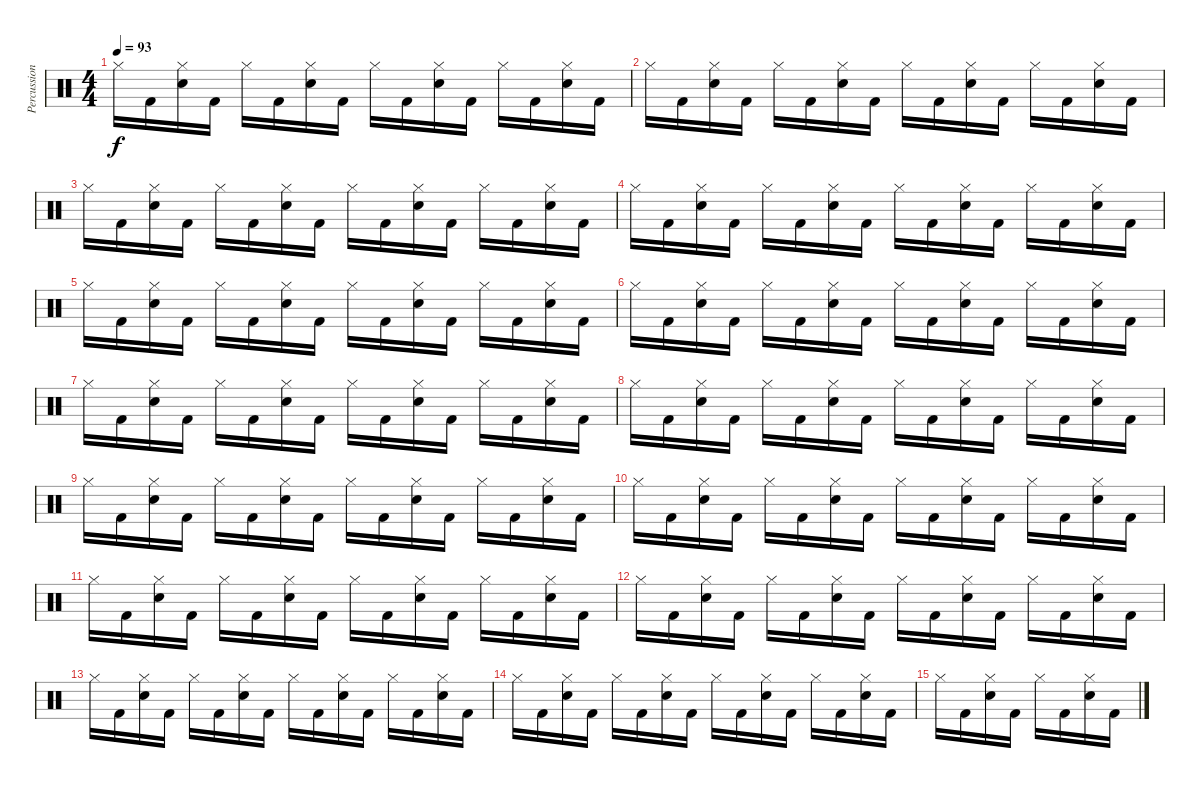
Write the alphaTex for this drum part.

\track ("Percussion" "Percussion") {instrument percussion}
\staff {score}
\articulation defaults
\ts (4 4)
\tempo 93
\clef neutral
\ks c "Hi-Hat (closed)".16{dy f} "Kick (hit) 2".16
("Hi-Hat (closed)" "Snare (hit) 2").16 "Kick (hit) 2".16 "Hi-Hat (closed)".16 "Kick (hit) 2".16 ("Hi-Hat (closed)" "Snare (hit) 2").16 "Kick (hit) 2".16 "Hi-Hat (closed)".16 "Kick (hit) 2".16 ("Hi-Hat (closed)" "Snare (hit) 2").16 "Kick (hit) 2".16 "Hi-Hat (closed)".16 "Kick (hit) 2".16 ("Hi-Hat (closed)" "Snare (hit) 2").16 "Kick (hit) 2".16 |
"Hi-Hat (closed)".16 "Kick (hit) 2".16 ("Hi-Hat (closed)" "Snare (hit) 2").16 "Kick (hit) 2".16 "Hi-Hat (closed)".16 "Kick (hit) 2".16 ("Hi-Hat (closed)" "Snare (hit) 2").16 "Kick (hit) 2".16 "Hi-Hat (closed)".16 "Kick (hit) 2".16 ("Hi-Hat (closed)" "Snare (hit) 2").16 "Kick (hit) 2".16 "Hi-Hat (closed)".16 "Kick (hit) 2".16 ("Hi-Hat (closed)" "Snare (hit) 2").16 "Kick (hit) 2".16 |
"Hi-Hat (closed)".16 "Kick (hit) 2".16 ("Hi-Hat (closed)" "Snare (hit) 2").16 "Kick (hit) 2".16 "Hi-Hat (closed)".16 "Kick (hit) 2".16 ("Hi-Hat (closed)" "Snare (hit) 2").16 "Kick (hit) 2".16 "Hi-Hat (closed)".16 "Kick (hit) 2".16 ("Hi-Hat (closed)" "Snare (hit) 2").16 "Kick (hit) 2".16 "Hi-Hat (closed)".16 "Kick (hit) 2".16 ("Hi-Hat (closed)" "Snare (hit) 2").16 "Kick (hit) 2".16 |
"Hi-Hat (closed)".16 "Kick (hit) 2".16 ("Hi-Hat (closed)" "Snare (hit) 2").16 "Kick (hit) 2".16 "Hi-Hat (closed)".16 "Kick (hit) 2".16 ("Hi-Hat (closed)" "Snare (hit) 2").16 "Kick (hit) 2".16 "Hi-Hat (closed)".16 "Kick (hit) 2".16 ("Hi-Hat (closed)" "Snare (hit) 2").16 "Kick (hit) 2".16 "Hi-Hat (closed)".16 "Kick (hit) 2".16 ("Hi-Hat (closed)" "Snare (hit) 2").16 "Kick (hit) 2".16 |
"Hi-Hat (closed)".16 "Kick (hit) 2".16 ("Hi-Hat (closed)" "Snare (hit) 2").16 "Kick (hit) 2".16 "Hi-Hat (closed)".16 "Kick (hit) 2".16 ("Hi-Hat (closed)" "Snare (hit) 2").16 "Kick (hit) 2".16 "Hi-Hat (closed)".16 "Kick (hit) 2".16 ("Hi-Hat (closed)" "Snare (hit) 2").16 "Kick (hit) 2".16 "Hi-Hat (closed)".16 "Kick (hit) 2".16 ("Hi-Hat (closed)" "Snare (hit) 2").16 "Kick (hit) 2".16 |
"Hi-Hat (closed)".16 "Kick (hit) 2".16 ("Hi-Hat (closed)" "Snare (hit) 2").16 "Kick (hit) 2".16 "Hi-Hat (closed)".16 "Kick (hit) 2".16 ("Hi-Hat (closed)" "Snare (hit) 2").16 "Kick (hit) 2".16 "Hi-Hat (closed)".16 "Kick (hit) 2".16 ("Hi-Hat (closed)" "Snare (hit) 2").16 "Kick (hit) 2".16 "Hi-Hat (closed)".16 "Kick (hit) 2".16 ("Hi-Hat (closed)" "Snare (hit) 2").16 "Kick (hit) 2".16 |
"Hi-Hat (closed)".16 "Kick (hit) 2".16 ("Hi-Hat (closed)" "Snare (hit) 2").16 "Kick (hit) 2".16 "Hi-Hat (closed)".16 "Kick (hit) 2".16 ("Hi-Hat (closed)" "Snare (hit) 2").16 "Kick (hit) 2".16 "Hi-Hat (closed)".16 "Kick (hit) 2".16 ("Hi-Hat (closed)" "Snare (hit) 2").16 "Kick (hit) 2".16 "Hi-Hat (closed)".16 "Kick (hit) 2".16 ("Hi-Hat (closed)" "Snare (hit) 2").16 "Kick (hit) 2".16 |
"Hi-Hat (closed)".16 "Kick (hit) 2".16 ("Hi-Hat (closed)" "Snare (hit) 2").16 "Kick (hit) 2".16 "Hi-Hat (closed)".16 "Kick (hit) 2".16 ("Hi-Hat (closed)" "Snare (hit) 2").16 "Kick (hit) 2".16 "Hi-Hat (closed)".16 "Kick (hit) 2".16 ("Hi-Hat (closed)" "Snare (hit) 2").16 "Kick (hit) 2".16 "Hi-Hat (closed)".16 "Kick (hit) 2".16 ("Hi-Hat (closed)" "Snare (hit) 2").16 "Kick (hit) 2".16 |
"Hi-Hat (closed)".16 "Kick (hit) 2".16 ("Hi-Hat (closed)" "Snare (hit) 2").16 "Kick (hit) 2".16 "Hi-Hat (closed)".16 "Kick (hit) 2".16 ("Hi-Hat (closed)" "Snare (hit) 2").16 "Kick (hit) 2".16 "Hi-Hat (closed)".16 "Kick (hit) 2".16 ("Hi-Hat (closed)" "Snare (hit) 2").16 "Kick (hit) 2".16 "Hi-Hat (closed)".16 "Kick (hit) 2".16 ("Hi-Hat (closed)" "Snare (hit) 2").16 "Kick (hit) 2".16 |
"Hi-Hat (closed)".16 "Kick (hit) 2".16 ("Hi-Hat (closed)" "Snare (hit) 2").16 "Kick (hit) 2".16 "Hi-Hat (closed)".16 "Kick (hit) 2".16 ("Hi-Hat (closed)" "Snare (hit) 2").16 "Kick (hit) 2".16 "Hi-Hat (closed)".16 "Kick (hit) 2".16 ("Hi-Hat (closed)" "Snare (hit) 2").16 "Kick (hit) 2".16 "Hi-Hat (closed)".16 "Kick (hit) 2".16 ("Hi-Hat (closed)" "Snare (hit) 2").16 "Kick (hit) 2".16 |
"Hi-Hat (closed)".16 "Kick (hit) 2".16 ("Hi-Hat (closed)" "Snare (hit) 2").16 "Kick (hit) 2".16 "Hi-Hat (closed)".16 "Kick (hit) 2".16 ("Hi-Hat (closed)" "Snare (hit) 2").16 "Kick (hit) 2".16 "Hi-Hat (closed)".16 "Kick (hit) 2".16 ("Hi-Hat (closed)" "Snare (hit) 2").16 "Kick (hit) 2".16 "Hi-Hat (closed)".16 "Kick (hit) 2".16 ("Hi-Hat (closed)" "Snare (hit) 2").16 "Kick (hit) 2".16 |
"Hi-Hat (closed)".16 "Kick (hit) 2".16 ("Hi-Hat (closed)" "Snare (hit) 2").16 "Kick (hit) 2".16 "Hi-Hat (closed)".16 "Kick (hit) 2".16 ("Hi-Hat (closed)" "Snare (hit) 2").16 "Kick (hit) 2".16 "Hi-Hat (closed)".16 "Kick (hit) 2".16 ("Hi-Hat (closed)" "Snare (hit) 2").16 "Kick (hit) 2".16 "Hi-Hat (closed)".16 "Kick (hit) 2".16 ("Hi-Hat (closed)" "Snare (hit) 2").16 "Kick (hit) 2".16 |
"Hi-Hat (closed)".16 "Kick (hit) 2".16 ("Hi-Hat (closed)" "Snare (hit) 2").16 "Kick (hit) 2".16 "Hi-Hat (closed)".16 "Kick (hit) 2".16 ("Hi-Hat (closed)" "Snare (hit) 2").16 "Kick (hit) 2".16 "Hi-Hat (closed)".16 "Kick (hit) 2".16 ("Hi-Hat (closed)" "Snare (hit) 2").16 "Kick (hit) 2".16 "Hi-Hat (closed)".16 "Kick (hit) 2".16 ("Hi-Hat (closed)" "Snare (hit) 2").16 "Kick (hit) 2".16 |
"Hi-Hat (closed)".16 "Kick (hit) 2".16 ("Hi-Hat (closed)" "Snare (hit) 2").16 "Kick (hit) 2".16 "Hi-Hat (closed)".16 "Kick (hit) 2".16 ("Hi-Hat (closed)" "Snare (hit) 2").16 "Kick (hit) 2".16 "Hi-Hat (closed)".16 "Kick (hit) 2".16 ("Hi-Hat (closed)" "Snare (hit) 2").16 "Kick (hit) 2".16 "Hi-Hat (closed)".16 "Kick (hit) 2".16 ("Hi-Hat (closed)" "Snare (hit) 2").16 "Kick (hit) 2".16 |
"Hi-Hat (closed)".16 "Kick (hit) 2".16 ("Hi-Hat (closed)" "Snare (hit) 2").16 "Kick (hit) 2".16 "Hi-Hat (closed)".16 "Kick (hit) 2".16 ("Hi-Hat (closed)" "Snare (hit) 2").16 "Kick (hit) 2".16
